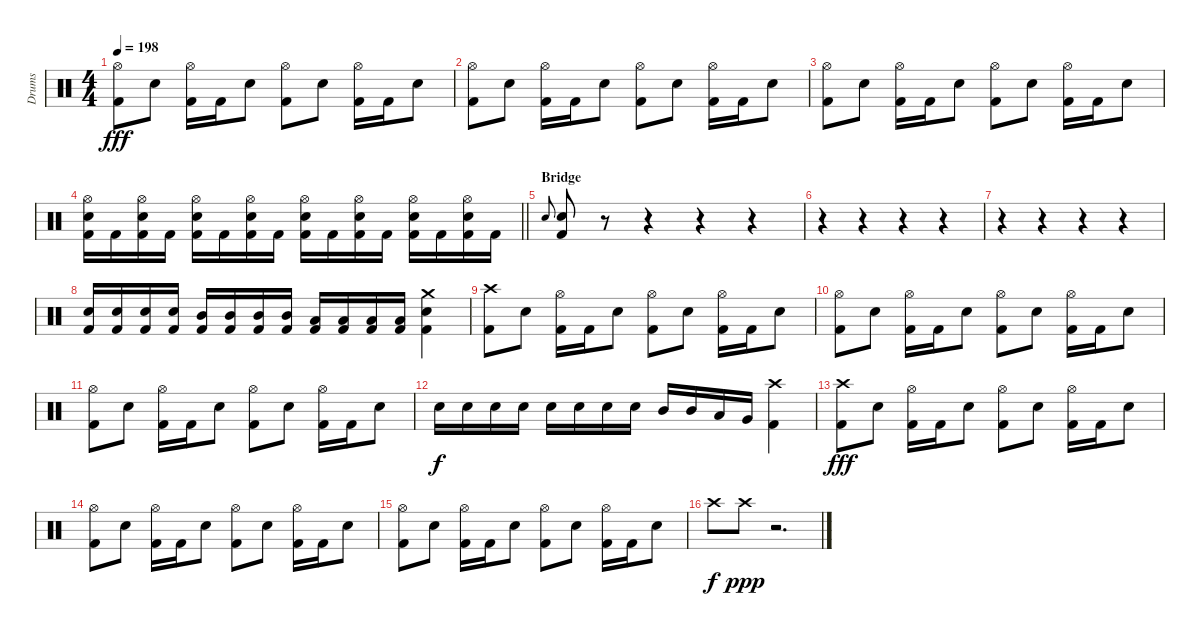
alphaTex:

\track ("Drums" "Drums") {instrument percussion}
\staff {score}
\articulation defaults
\ts (4 4)
\tempo 198
\clef neutral
\ks c
("Hi-Hat (open)" "Kick (hit) 2").8{dy fff} "Electric Snare (hit)".8 ("Hi-Hat (open)" "Kick (hit) 2").16 "Kick (hit) 2".16 "Electric Snare (hit)".8 ("Hi-Hat (open)" "Kick (hit) 2").8 "Electric Snare (hit)".8 ("Hi-Hat (open)" "Kick (hit) 2").16 "Kick (hit) 2".16 "Electric Snare (hit)".8 |
("Hi-Hat (open)" "Kick (hit) 2").8 "Electric Snare (hit)".8 ("Hi-Hat (open)" "Kick (hit) 2").16 "Kick (hit) 2".16 "Electric Snare (hit)".8 ("Hi-Hat (open)" "Kick (hit) 2").8 "Electric Snare (hit)".8 ("Hi-Hat (open)" "Kick (hit) 2").16 "Kick (hit) 2".16 "Electric Snare (hit)".8 |
("Hi-Hat (open)" "Kick (hit) 2").8 "Electric Snare (hit)".8 ("Hi-Hat (open)" "Kick (hit) 2").16 "Kick (hit) 2".16 "Electric Snare (hit)".8 ("Hi-Hat (open)" "Kick (hit) 2").8 "Electric Snare (hit)".8 ("Hi-Hat (open)" "Kick (hit) 2").16 "Kick (hit) 2".16 "Electric Snare (hit)".8 |
\barLineRight lightlight
("Hi-Hat (open)" "Electric Snare (hit)" "Kick (hit) 2").16 "Kick (hit) 2".16 ("Hi-Hat (open)" "Electric Snare (hit)" "Kick (hit) 2").16 "Kick (hit) 2".16 ("Hi-Hat (open)" "Electric Snare (hit)" "Kick (hit) 2").16 "Kick (hit) 2".16 ("Hi-Hat (open)" "Electric Snare (hit)" "Kick (hit) 2").16 "Kick (hit) 2".16 ("Hi-Hat (open)" "Electric Snare (hit)" "Kick (hit) 2").16 "Kick (hit) 2".16 ("Hi-Hat (open)" "Electric Snare (hit)" "Kick (hit) 2").16 "Kick (hit) 2".16 ("Hi-Hat (open)" "Electric Snare (hit)" "Kick (hit) 2").16 "Kick (hit) 2".16 ("Hi-Hat (open)" "Electric Snare (hit)" "Kick (hit) 2").16 "Kick (hit) 2".16 |
\section ("" "Bridge")
"Electric Snare (hit)".8{gr onbeat} ("Electric Snare (hit)" "Kick (hit) 2").8 r.8 r.4 r.4 r.4 |
r.4 r.4 r.4 r.4 |
r.4 r.4 r.4 r.4 |
("Electric Snare (hit)" "Kick (hit) 2").16 ("Electric Snare (hit)" "Kick (hit) 2").16 ("Electric Snare (hit)" "Kick (hit) 2").16 ("Electric Snare (hit)" "Kick (hit) 2").16 ("Mid Tom (hit)" "Kick (hit) 2").16 ("Mid Tom (hit)" "Kick (hit) 2").16 ("Mid Tom (hit)" "Kick (hit) 2").16 ("Mid Tom (hit)" "Kick (hit) 2").16 ("Low Tom (hit)" "Kick (hit) 2").16 ("Low Tom (hit)" "Kick (hit) 2").16 ("Low Tom (hit)" "Kick (hit) 2").16 ("Low Tom (hit)" "Kick (hit) 2").16 ("Crash medium (hit)" "Electric Snare (hit)" "Kick (hit) 2").4 |
("Crash high (hit)" "Kick (hit) 2").8 "Electric Snare (hit)".8 ("Hi-Hat (open)" "Kick (hit) 2").16 "Kick (hit) 2".16 "Electric Snare (hit)".8 ("Hi-Hat (open)" "Kick (hit) 2").8 "Electric Snare (hit)".8 ("Hi-Hat (open)" "Kick (hit) 2").16 "Kick (hit) 2".16 "Electric Snare (hit)".8 |
("Hi-Hat (open)" "Kick (hit) 2").8 "Electric Snare (hit)".8 ("Hi-Hat (open)" "Kick (hit) 2").16 "Kick (hit) 2".16 "Electric Snare (hit)".8 ("Hi-Hat (open)" "Kick (hit) 2").8 "Electric Snare (hit)".8 ("Hi-Hat (open)" "Kick (hit) 2").16 "Kick (hit) 2".16 "Electric Snare (hit)".8 |
("Hi-Hat (open)" "Kick (hit) 2").8 "Electric Snare (hit)".8 ("Hi-Hat (open)" "Kick (hit) 2").16 "Kick (hit) 2".16 "Electric Snare (hit)".8 ("Hi-Hat (open)" "Kick (hit) 2").8 "Electric Snare (hit)".8 ("Hi-Hat (open)" "Kick (hit) 2").16 "Kick (hit) 2".16 "Electric Snare (hit)".8 |
"Electric Snare (hit)".16{dy f} "Electric Snare (hit)".16 "Electric Snare (hit)".16 "Electric Snare (hit)".16 "Electric Snare (hit)".16 "Electric Snare (hit)".16 "Electric Snare (hit)".16 "Electric Snare (hit)".16 "Mid Tom (hit)".16 "Mid Tom (hit)".16 "Low Tom (hit)".16 "Very Low Tom (hit)".16 ("Crash high (hit)" "Kick (hit) 2").4 |
("Crash high (hit)" "Kick (hit) 2").8{dy fff} "Electric Snare (hit)".8 ("Hi-Hat (open)" "Kick (hit) 2").16 "Kick (hit) 2".16 "Electric Snare (hit)".8 ("Hi-Hat (open)" "Kick (hit) 2").8 "Electric Snare (hit)".8 ("Hi-Hat (open)" "Kick (hit) 2").16 "Kick (hit) 2".16 "Electric Snare (hit)".8 |
("Hi-Hat (open)" "Kick (hit) 2").8 "Electric Snare (hit)".8 ("Hi-Hat (open)" "Kick (hit) 2").16 "Kick (hit) 2".16 "Electric Snare (hit)".8 ("Hi-Hat (open)" "Kick (hit) 2").8 "Electric Snare (hit)".8 ("Hi-Hat (open)" "Kick (hit) 2").16 "Kick (hit) 2".16 "Electric Snare (hit)".8 |
("Hi-Hat (open)" "Kick (hit) 2").8 "Electric Snare (hit)".8 ("Hi-Hat (open)" "Kick (hit) 2").16 "Kick (hit) 2".16 "Electric Snare (hit)".8 ("Hi-Hat (open)" "Kick (hit) 2").8 "Electric Snare (hit)".8 ("Hi-Hat (open)" "Kick (hit) 2").16 "Kick (hit) 2".16 "Electric Snare (hit)".8 |
"Crash high (hit)".8{dy f} "Crash high (hit)".8{dy ppp} r.2{d}
